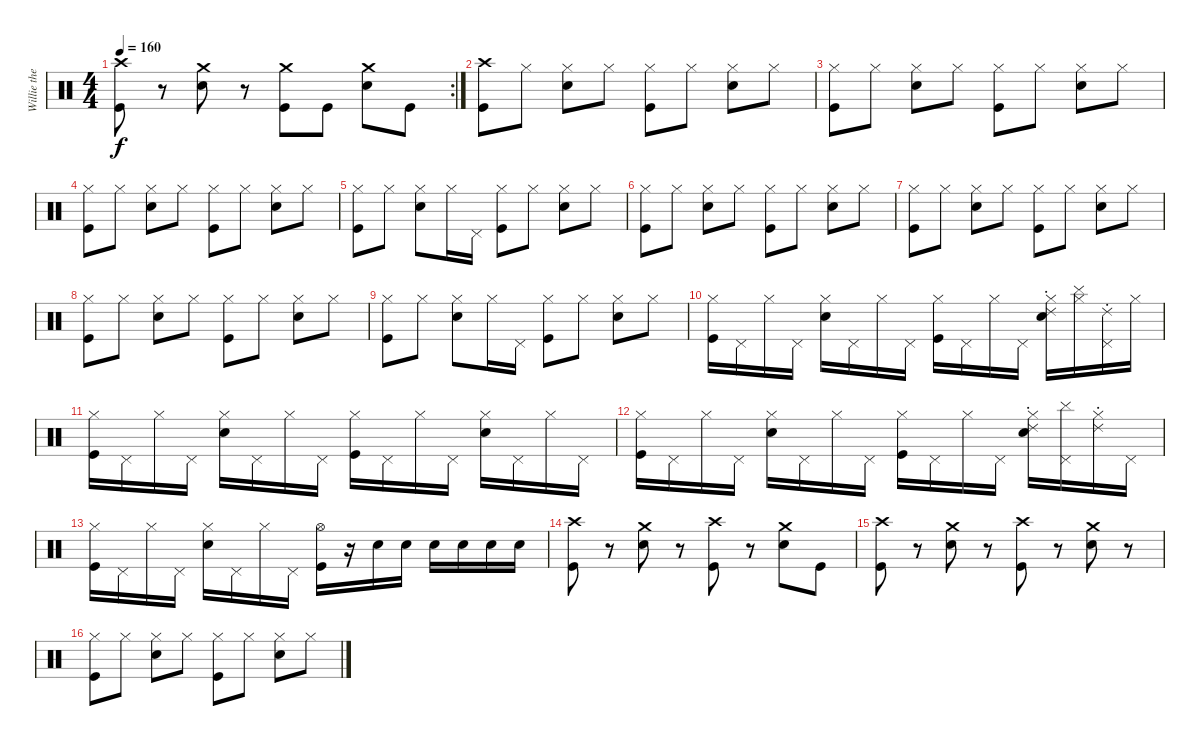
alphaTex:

\track ("Willie the new guy" "Willie the") {instrument percussion}
\staff {score}
\articulation defaults
\rc 2
\ts (4 4)
\tempo 160
\clef neutral
\ks c
("Crash high (hit)" "Kick (hit)").8{dy f} r.8 ("Crash medium (hit)" "Snare (hit) 2").8 r.8 ("Crash medium (hit)" "Kick (hit)").8 "Kick (hit)".8 ("Crash medium (hit)" "Snare (hit) 2").8 "Kick (hit)".8 |
("Crash high (hit)" "Kick (hit)").8 "Hi-Hat (closed)".8 ("Hi-Hat (closed)" "Snare (hit) 2").8 "Hi-Hat (closed)".8 ("Hi-Hat (closed)" "Kick (hit)").8 "Hi-Hat (closed)".8 ("Hi-Hat (closed)" "Snare (hit) 2").8 "Hi-Hat (closed)".8 |
("Hi-Hat (closed)" "Kick (hit)").8 "Hi-Hat (closed)".8 ("Hi-Hat (closed)" "Snare (hit) 2").8 "Hi-Hat (closed)".8 ("Hi-Hat (closed)" "Kick (hit)").8 "Hi-Hat (closed)".8 ("Hi-Hat (closed)" "Snare (hit) 2").8 "Hi-Hat (closed)".8 |
("Hi-Hat (closed)" "Kick (hit)").8 "Hi-Hat (closed)".8 ("Hi-Hat (closed)" "Snare (hit) 2").8 "Hi-Hat (closed)".8 ("Hi-Hat (closed)" "Kick (hit)").8 "Hi-Hat (closed)".8 ("Hi-Hat (closed)" "Snare (hit) 2").8 "Hi-Hat (closed)".8 |
("Hi-Hat (closed)" "Kick (hit)").8 "Hi-Hat (closed)".8 ("Hi-Hat (closed)" "Snare (hit) 2").8 "Hi-Hat (closed)".16 "Pedal Hi-Hat (hit)".16 ("Hi-Hat (closed)" "Kick (hit)").8 "Hi-Hat (closed)".8 ("Hi-Hat (closed)" "Snare (hit) 2").8 "Hi-Hat (closed)".8 |
("Hi-Hat (closed)" "Kick (hit)").8 "Hi-Hat (closed)".8 ("Hi-Hat (closed)" "Snare (hit) 2").8 "Hi-Hat (closed)".8 ("Hi-Hat (closed)" "Kick (hit)").8 "Hi-Hat (closed)".8 ("Hi-Hat (closed)" "Snare (hit) 2").8 "Hi-Hat (closed)".8 |
("Hi-Hat (closed)" "Kick (hit)").8 "Hi-Hat (closed)".8 ("Hi-Hat (closed)" "Snare (hit) 2").8 "Hi-Hat (closed)".8 ("Hi-Hat (closed)" "Kick (hit)").8 "Hi-Hat (closed)".8 ("Hi-Hat (closed)" "Snare (hit) 2").8 "Hi-Hat (closed)".8 |
("Hi-Hat (closed)" "Kick (hit)").8 "Hi-Hat (closed)".8 ("Hi-Hat (closed)" "Snare (hit) 2").8 "Hi-Hat (closed)".8 ("Hi-Hat (closed)" "Kick (hit)").8 "Hi-Hat (closed)".8 ("Hi-Hat (closed)" "Snare (hit) 2").8 "Hi-Hat (closed)".8 |
("Hi-Hat (closed)" "Kick (hit)").8 "Hi-Hat (closed)".8 ("Hi-Hat (closed)" "Snare (hit) 2").8 "Hi-Hat (closed)".16 "Pedal Hi-Hat (hit)".16 ("Hi-Hat (closed)" "Kick (hit)").8 "Hi-Hat (closed)".8 ("Hi-Hat (closed)" "Snare (hit) 2").8 "Hi-Hat (closed)".8 |
("Hi-Hat (closed)" "Kick (hit)").16 "Pedal Hi-Hat (hit)".16 "Hi-Hat (closed)".16 "Pedal Hi-Hat (hit)".16 ("Hi-Hat (closed)" "Snare (hit) 2").16 "Pedal Hi-Hat (hit)".16 "Hi-Hat (closed)".16 "Pedal Hi-Hat (hit)".16 ("Hi-Hat (closed)" "Kick (hit)").16 "Pedal Hi-Hat (hit)".16 "Hi-Hat (closed)".16 "Pedal Hi-Hat (hit)".16 ("Hi-Hat (closed)" "Snare (hit) 2" "Ride (choke) 2").16 ("Hi-Hat (closed)" "Cymbal (hit)").16 ("Pedal Hi-Hat (hit)" "Ride (choke) 2").16 "Hi-Hat (closed)".16 |
("Hi-Hat (closed)" "Kick (hit)").16 "Pedal Hi-Hat (hit)".16 "Hi-Hat (closed)".16 "Pedal Hi-Hat (hit)".16 ("Hi-Hat (closed)" "Snare (hit) 2").16 "Pedal Hi-Hat (hit)".16 "Hi-Hat (closed)".16 "Pedal Hi-Hat (hit)".16 ("Hi-Hat (closed)" "Kick (hit)").16 "Pedal Hi-Hat (hit)".16 "Hi-Hat (closed)".16 "Pedal Hi-Hat (hit)".16 ("Hi-Hat (closed)" "Snare (hit) 2").16 "Pedal Hi-Hat (hit)".16 "Hi-Hat (closed)".16 "Pedal Hi-Hat (hit)".16 |
("Hi-Hat (closed)" "Kick (hit)").16 "Pedal Hi-Hat (hit)".16 "Hi-Hat (closed)".16 "Pedal Hi-Hat (hit)".16 ("Hi-Hat (closed)" "Snare (hit) 2").16 "Pedal Hi-Hat (hit)".16 "Hi-Hat (closed)".16 "Pedal Hi-Hat (hit)".16 ("Hi-Hat (closed)" "Kick (hit)").16 "Pedal Hi-Hat (hit)".16 "Hi-Hat (closed)".16 "Pedal Hi-Hat (hit)".16 ("Hi-Hat (closed)" "Snare (hit) 2" "Ride (choke) 2").16 ("Pedal Hi-Hat (hit)" "Cymbal (hit)").16 ("Hi-Hat (closed)" "Ride (choke) 2").16 "Pedal Hi-Hat (hit)".16 |
("Hi-Hat (closed)" "Kick (hit)").16 "Pedal Hi-Hat (hit)".16 "Hi-Hat (closed)".16 "Pedal Hi-Hat (hit)".16 ("Hi-Hat (closed)" "Snare (hit) 2").16 "Pedal Hi-Hat (hit)".16 "Hi-Hat (closed)".16 "Pedal Hi-Hat (hit)".16 ("Hi-Hat (open)" "Kick (hit)").16 r.16 "Snare (hit) 2".16 "Snare (hit) 2".16 "Snare (hit) 2".16 "Snare (hit) 2".16 "Snare (hit) 2".16 "Snare (hit) 2".16 |
("Crash high (hit)" "Kick (hit)").8 r.8 ("Crash medium (hit)" "Snare (hit) 2").8 r.8 ("Crash high (hit)" "Kick (hit)").8 r.8 ("Crash medium (hit)" "Snare (hit) 2").8 "Kick (hit)".8 |
("Crash high (hit)" "Kick (hit)").8 r.8 ("Crash medium (hit)" "Snare (hit) 2").8 r.8 ("Crash high (hit)" "Kick (hit)").8 r.8 ("Crash medium (hit)" "Snare (hit) 2").8 r.8 |
("Hi-Hat (closed)" "Kick (hit)").8 "Hi-Hat (closed)".8 ("Hi-Hat (closed)" "Snare (hit) 2").8 "Hi-Hat (closed)".8 ("Hi-Hat (closed)" "Kick (hit)").8 "Hi-Hat (closed)".8 ("Hi-Hat (closed)" "Snare (hit) 2").8 "Hi-Hat (closed)".8
